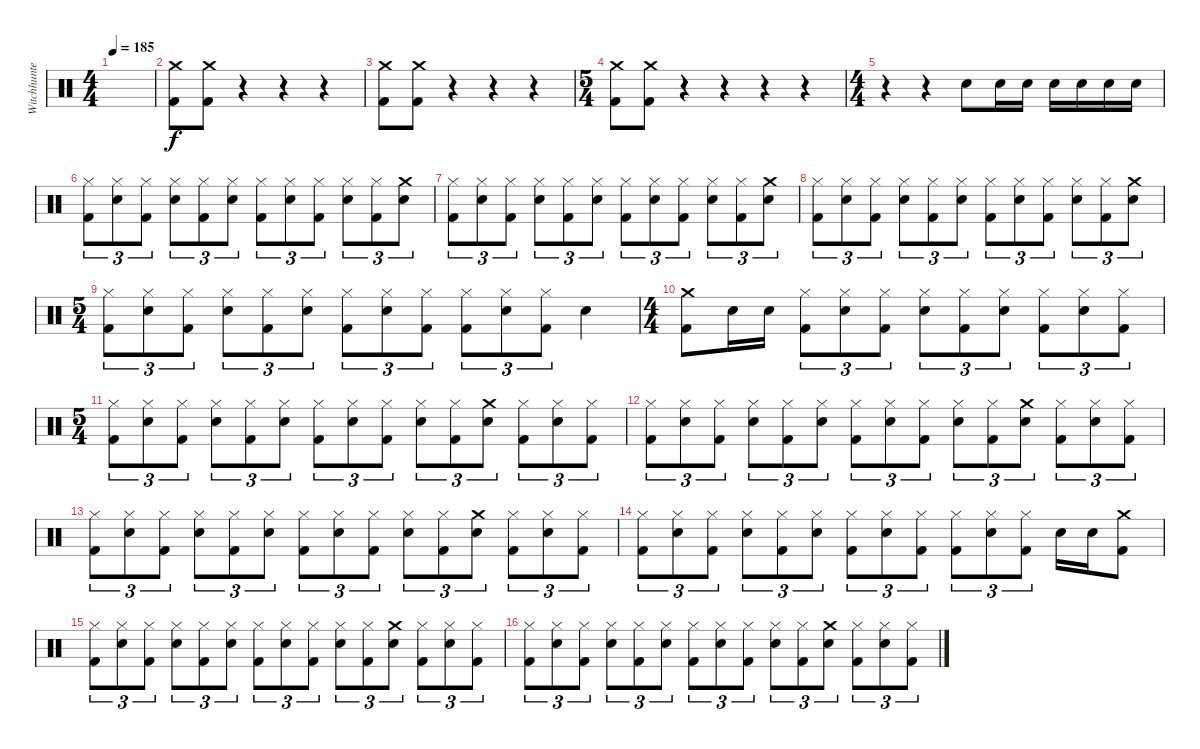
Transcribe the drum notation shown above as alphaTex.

\track ("Witchhunter" "Witchhunte") {instrument percussion}
\staff {score}
\articulation defaults
\ts (4 4)
\tempo 185
\clef neutral
\ks c
|
("Crash medium (hit)" "Kick (hit) 2").8 ("Crash medium (hit)" "Kick (hit) 2").8 r.4 r.4 r.4 |
("Crash medium (hit)" "Kick (hit) 2").8 ("Crash medium (hit)" "Kick (hit) 2").8 r.4 r.4 r.4 |
\ts (5 4)
("Crash medium (hit)" "Kick (hit) 2").8 ("Crash medium (hit)" "Kick (hit) 2").8 r.4 r.4 r.4 r.4 |
\ts (4 4)
r.4 r.4 "Snare (hit) 2".8 "Snare (hit) 2".16 "Snare (hit) 2".16 "Snare (hit) 2".16 "Snare (hit) 2".16 "Snare (hit) 2".16 "Snare (hit) 2".16 |
("Hi-Hat (closed)" "Kick (hit) 2").8{tu (3 2)} ("Hi-Hat (closed)" "Snare (hit) 2").8{tu (3 2)} ("Hi-Hat (closed)" "Kick (hit) 2").8{tu (3 2)} ("Hi-Hat (closed)" "Snare (hit) 2").8{tu (3 2)} ("Hi-Hat (closed)" "Kick (hit) 2").8{tu (3 2)} ("Hi-Hat (closed)" "Snare (hit) 2").8{tu (3 2)} ("Hi-Hat (closed)" "Kick (hit) 2").8{tu (3 2)} ("Hi-Hat (closed)" "Snare (hit) 2").8{tu (3 2)} ("Hi-Hat (closed)" "Kick (hit) 2").8{tu (3 2)} ("Hi-Hat (closed)" "Snare (hit) 2").8{tu (3 2)} ("Hi-Hat (closed)" "Kick (hit) 2").8{tu (3 2)} ("Crash medium (hit)" "Snare (hit) 2").8{tu (3 2)} |
("Hi-Hat (closed)" "Kick (hit) 2").8{tu (3 2)} ("Hi-Hat (closed)" "Snare (hit) 2").8{tu (3 2)} ("Hi-Hat (closed)" "Kick (hit) 2").8{tu (3 2)} ("Hi-Hat (closed)" "Snare (hit) 2").8{tu (3 2)} ("Hi-Hat (closed)" "Kick (hit) 2").8{tu (3 2)} ("Hi-Hat (closed)" "Snare (hit) 2").8{tu (3 2)} ("Hi-Hat (closed)" "Kick (hit) 2").8{tu (3 2)} ("Hi-Hat (closed)" "Snare (hit) 2").8{tu (3 2)} ("Hi-Hat (closed)" "Kick (hit) 2").8{tu (3 2)} ("Hi-Hat (closed)" "Snare (hit) 2").8{tu (3 2)} ("Hi-Hat (closed)" "Kick (hit) 2").8{tu (3 2)} ("Crash medium (hit)" "Snare (hit) 2").8{tu (3 2)} |
("Hi-Hat (closed)" "Kick (hit) 2").8{tu (3 2)} ("Hi-Hat (closed)" "Snare (hit) 2").8{tu (3 2)} ("Hi-Hat (closed)" "Kick (hit) 2").8{tu (3 2)} ("Hi-Hat (closed)" "Snare (hit) 2").8{tu (3 2)} ("Hi-Hat (closed)" "Kick (hit) 2").8{tu (3 2)} ("Hi-Hat (closed)" "Snare (hit) 2").8{tu (3 2)} ("Hi-Hat (closed)" "Kick (hit) 2").8{tu (3 2)} ("Hi-Hat (closed)" "Snare (hit) 2").8{tu (3 2)} ("Hi-Hat (closed)" "Kick (hit) 2").8{tu (3 2)} ("Hi-Hat (closed)" "Snare (hit) 2").8{tu (3 2)} ("Hi-Hat (closed)" "Kick (hit) 2").8{tu (3 2)} ("Crash medium (hit)" "Snare (hit) 2").8{tu (3 2)} |
\ts (5 4)
("Hi-Hat (closed)" "Kick (hit) 2").8{tu (3 2)} ("Hi-Hat (closed)" "Snare (hit) 2").8{tu (3 2)} ("Hi-Hat (closed)" "Kick (hit) 2").8{tu (3 2)} ("Hi-Hat (closed)" "Snare (hit) 2").8{tu (3 2)} ("Hi-Hat (closed)" "Kick (hit) 2").8{tu (3 2)} ("Hi-Hat (closed)" "Snare (hit) 2").8{tu (3 2)} ("Hi-Hat (closed)" "Kick (hit) 2").8{tu (3 2)} ("Hi-Hat (closed)" "Snare (hit) 2").8{tu (3 2)} ("Hi-Hat (closed)" "Kick (hit) 2").8{tu (3 2)} ("Hi-Hat (closed)" "Kick (hit) 2").8{tu (3 2)} ("Hi-Hat (closed)" "Snare (hit) 2").8{tu (3 2)} ("Hi-Hat (closed)" "Kick (hit) 2").8{tu (3 2)} "Snare (hit) 2".4 |
\ts (4 4)
("Crash medium (hit)" "Kick (hit) 2").8 "Snare (hit) 2".16 "Snare (hit) 2".16 ("Hi-Hat (closed)" "Kick (hit) 2").8{tu (3 2)} ("Hi-Hat (closed)" "Snare (hit) 2").8{tu (3 2)} ("Hi-Hat (closed)" "Kick (hit) 2").8{tu (3 2)} ("Hi-Hat (closed)" "Snare (hit) 2").8{tu (3 2)} ("Hi-Hat (closed)" "Kick (hit) 2").8{tu (3 2)} ("Hi-Hat (closed)" "Snare (hit) 2").8{tu (3 2)} ("Hi-Hat (closed)" "Kick (hit) 2").8{tu (3 2)} ("Hi-Hat (closed)" "Snare (hit) 2").8{tu (3 2)} ("Hi-Hat (closed)" "Kick (hit) 2").8{tu (3 2)} |
\ts (5 4)
("Hi-Hat (closed)" "Kick (hit) 2").8{tu (3 2)} ("Hi-Hat (closed)" "Snare (hit) 2").8{tu (3 2)} ("Hi-Hat (closed)" "Kick (hit) 2").8{tu (3 2)} ("Hi-Hat (closed)" "Snare (hit) 2").8{tu (3 2)} ("Hi-Hat (closed)" "Kick (hit) 2").8{tu (3 2)} ("Hi-Hat (closed)" "Snare (hit) 2").8{tu (3 2)} ("Hi-Hat (closed)" "Kick (hit) 2").8{tu (3 2)} ("Hi-Hat (closed)" "Snare (hit) 2").8{tu (3 2)} ("Hi-Hat (closed)" "Kick (hit) 2").8{tu (3 2)} ("Hi-Hat (closed)" "Snare (hit) 2").8{tu (3 2)} ("Hi-Hat (closed)" "Kick (hit) 2").8{tu (3 2)} ("Crash medium (hit)" "Snare (hit) 2").8{tu (3 2)} ("Hi-Hat (closed)" "Kick (hit) 2").8{tu (3 2)} ("Hi-Hat (closed)" "Snare (hit) 2").8{tu (3 2)} ("Hi-Hat (closed)" "Kick (hit) 2").8{tu (3 2)} |
("Hi-Hat (closed)" "Kick (hit) 2").8{tu (3 2)} ("Hi-Hat (closed)" "Snare (hit) 2").8{tu (3 2)} ("Hi-Hat (closed)" "Kick (hit) 2").8{tu (3 2)} ("Hi-Hat (closed)" "Snare (hit) 2").8{tu (3 2)} ("Hi-Hat (closed)" "Kick (hit) 2").8{tu (3 2)} ("Hi-Hat (closed)" "Snare (hit) 2").8{tu (3 2)} ("Hi-Hat (closed)" "Kick (hit) 2").8{tu (3 2)} ("Hi-Hat (closed)" "Snare (hit) 2").8{tu (3 2)} ("Hi-Hat (closed)" "Kick (hit) 2").8{tu (3 2)} ("Hi-Hat (closed)" "Snare (hit) 2").8{tu (3 2)} ("Hi-Hat (closed)" "Kick (hit) 2").8{tu (3 2)} ("Crash medium (hit)" "Snare (hit) 2").8{tu (3 2)} ("Hi-Hat (closed)" "Kick (hit) 2").8{tu (3 2)} ("Hi-Hat (closed)" "Snare (hit) 2").8{tu (3 2)} ("Hi-Hat (closed)" "Kick (hit) 2").8{tu (3 2)} |
("Hi-Hat (closed)" "Kick (hit) 2").8{tu (3 2)} ("Hi-Hat (closed)" "Snare (hit) 2").8{tu (3 2)} ("Hi-Hat (closed)" "Kick (hit) 2").8{tu (3 2)} ("Hi-Hat (closed)" "Snare (hit) 2").8{tu (3 2)} ("Hi-Hat (closed)" "Kick (hit) 2").8{tu (3 2)} ("Hi-Hat (closed)" "Snare (hit) 2").8{tu (3 2)} ("Hi-Hat (closed)" "Kick (hit) 2").8{tu (3 2)} ("Hi-Hat (closed)" "Snare (hit) 2").8{tu (3 2)} ("Hi-Hat (closed)" "Kick (hit) 2").8{tu (3 2)} ("Hi-Hat (closed)" "Snare (hit) 2").8{tu (3 2)} ("Hi-Hat (closed)" "Kick (hit) 2").8{tu (3 2)} ("Crash medium (hit)" "Snare (hit) 2").8{tu (3 2)} ("Hi-Hat (closed)" "Kick (hit) 2").8{tu (3 2)} ("Hi-Hat (closed)" "Snare (hit) 2").8{tu (3 2)} ("Hi-Hat (closed)" "Kick (hit) 2").8{tu (3 2)} |
("Hi-Hat (closed)" "Kick (hit) 2").8{tu (3 2)} ("Hi-Hat (closed)" "Snare (hit) 2").8{tu (3 2)} ("Hi-Hat (closed)" "Kick (hit) 2").8{tu (3 2)} ("Hi-Hat (closed)" "Snare (hit) 2").8{tu (3 2)} ("Hi-Hat (closed)" "Kick (hit) 2").8{tu (3 2)} ("Hi-Hat (closed)" "Snare (hit) 2").8{tu (3 2)} ("Hi-Hat (closed)" "Kick (hit) 2").8{tu (3 2)} ("Hi-Hat (closed)" "Snare (hit) 2").8{tu (3 2)} ("Hi-Hat (closed)" "Kick (hit) 2").8{tu (3 2)} ("Hi-Hat (closed)" "Kick (hit) 2").8{tu (3 2)} ("Hi-Hat (closed)" "Snare (hit) 2").8{tu (3 2)} ("Hi-Hat (closed)" "Kick (hit) 2").8{tu (3 2)} "Snare (hit) 2".16 "Snare (hit) 2".16 ("Crash medium (hit)" "Kick (hit) 2").8 |
("Hi-Hat (closed)" "Kick (hit) 2").8{tu (3 2)} ("Hi-Hat (closed)" "Snare (hit) 2").8{tu (3 2)} ("Hi-Hat (closed)" "Kick (hit) 2").8{tu (3 2)} ("Hi-Hat (closed)" "Snare (hit) 2").8{tu (3 2)} ("Hi-Hat (closed)" "Kick (hit) 2").8{tu (3 2)} ("Hi-Hat (closed)" "Snare (hit) 2").8{tu (3 2)} ("Hi-Hat (closed)" "Kick (hit) 2").8{tu (3 2)} ("Hi-Hat (closed)" "Snare (hit) 2").8{tu (3 2)} ("Hi-Hat (closed)" "Kick (hit) 2").8{tu (3 2)} ("Hi-Hat (closed)" "Snare (hit) 2").8{tu (3 2)} ("Hi-Hat (closed)" "Kick (hit) 2").8{tu (3 2)} ("Crash medium (hit)" "Snare (hit) 2").8{tu (3 2)} ("Hi-Hat (closed)" "Kick (hit) 2").8{tu (3 2)} ("Hi-Hat (closed)" "Snare (hit) 2").8{tu (3 2)} ("Hi-Hat (closed)" "Kick (hit) 2").8{tu (3 2)} |
("Hi-Hat (closed)" "Kick (hit) 2").8{tu (3 2)} ("Hi-Hat (closed)" "Snare (hit) 2").8{tu (3 2)} ("Hi-Hat (closed)" "Kick (hit) 2").8{tu (3 2)} ("Hi-Hat (closed)" "Snare (hit) 2").8{tu (3 2)} ("Hi-Hat (closed)" "Kick (hit) 2").8{tu (3 2)} ("Hi-Hat (closed)" "Snare (hit) 2").8{tu (3 2)} ("Hi-Hat (closed)" "Kick (hit) 2").8{tu (3 2)} ("Hi-Hat (closed)" "Snare (hit) 2").8{tu (3 2)} ("Hi-Hat (closed)" "Kick (hit) 2").8{tu (3 2)} ("Hi-Hat (closed)" "Snare (hit) 2").8{tu (3 2)} ("Hi-Hat (closed)" "Kick (hit) 2").8{tu (3 2)} ("Crash medium (hit)" "Snare (hit) 2").8{tu (3 2)} ("Hi-Hat (closed)" "Kick (hit) 2").8{tu (3 2)} ("Hi-Hat (closed)" "Snare (hit) 2").8{tu (3 2)} ("Hi-Hat (closed)" "Kick (hit) 2").8{tu (3 2)}
